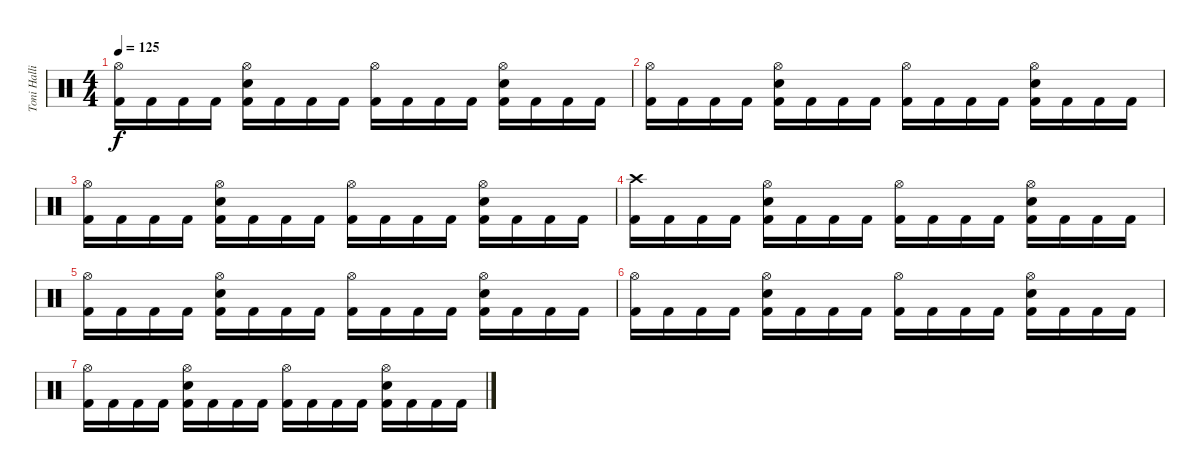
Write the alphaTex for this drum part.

\track ("Toni Hallio" "Toni Halli") {instrument percussion}
\staff {score}
\articulation defaults
\ts (4 4)
\tempo 125
\clef neutral
\ks c
("Hi-Hat (open)" "Kick (hit) 2").16{dy f} "Kick (hit) 2".16 "Kick (hit) 2".16 "Kick (hit) 2".16 ("Snare (hit) 2" "Hi-Hat (open)" "Kick (hit) 2").16 "Kick (hit) 2".16 "Kick (hit) 2".16 "Kick (hit) 2".16 ("Hi-Hat (open)" "Kick (hit) 2").16 "Kick (hit) 2".16 "Kick (hit) 2".16 "Kick (hit) 2".16 ("Snare (hit) 2" "Hi-Hat (open)" "Kick (hit) 2").16 "Kick (hit) 2".16 "Kick (hit) 2".16 "Kick (hit) 2".16 |
("Hi-Hat (open)" "Kick (hit) 2").16 "Kick (hit) 2".16 "Kick (hit) 2".16 "Kick (hit) 2".16 ("Snare (hit) 2" "Hi-Hat (open)" "Kick (hit) 2").16 "Kick (hit) 2".16 "Kick (hit) 2".16 "Kick (hit) 2".16 ("Hi-Hat (open)" "Kick (hit) 2").16 "Kick (hit) 2".16 "Kick (hit) 2".16 "Kick (hit) 2".16 ("Snare (hit) 2" "Hi-Hat (open)" "Kick (hit) 2").16 "Kick (hit) 2".16 "Kick (hit) 2".16 "Kick (hit) 2".16 |
("Hi-Hat (open)" "Kick (hit) 2").16 "Kick (hit) 2".16 "Kick (hit) 2".16 "Kick (hit) 2".16 ("Snare (hit) 2" "Hi-Hat (open)" "Kick (hit) 2").16 "Kick (hit) 2".16 "Kick (hit) 2".16 "Kick (hit) 2".16 ("Hi-Hat (open)" "Kick (hit) 2").16 "Kick (hit) 2".16 "Kick (hit) 2".16 "Kick (hit) 2".16 ("Snare (hit) 2" "Hi-Hat (open)" "Kick (hit) 2").16 "Kick (hit) 2".16 "Kick (hit) 2".16 "Kick (hit) 2".16 |
("Crash high (hit)" "Kick (hit) 2").16{volume 6} "Kick (hit) 2".16 "Kick (hit) 2".16 "Kick (hit) 2".16 ("Snare (hit) 2" "Hi-Hat (open)" "Kick (hit) 2").16 "Kick (hit) 2".16 "Kick (hit) 2".16 "Kick (hit) 2".16 ("Hi-Hat (open)" "Kick (hit) 2").16 "Kick (hit) 2".16 "Kick (hit) 2".16 "Kick (hit) 2".16 ("Snare (hit) 2" "Hi-Hat (open)" "Kick (hit) 2").16 "Kick (hit) 2".16 "Kick (hit) 2".16 "Kick (hit) 2".16 |
("Hi-Hat (open)" "Kick (hit) 2").16 "Kick (hit) 2".16 "Kick (hit) 2".16 "Kick (hit) 2".16 ("Snare (hit) 2" "Hi-Hat (open)" "Kick (hit) 2").16 "Kick (hit) 2".16 "Kick (hit) 2".16 "Kick (hit) 2".16 ("Hi-Hat (open)" "Kick (hit) 2").16 "Kick (hit) 2".16 "Kick (hit) 2".16 "Kick (hit) 2".16 ("Snare (hit) 2" "Hi-Hat (open)" "Kick (hit) 2").16 "Kick (hit) 2".16 "Kick (hit) 2".16 "Kick (hit) 2".16 |
("Hi-Hat (open)" "Kick (hit) 2").16 "Kick (hit) 2".16 "Kick (hit) 2".16 "Kick (hit) 2".16 ("Snare (hit) 2" "Hi-Hat (open)" "Kick (hit) 2").16 "Kick (hit) 2".16 "Kick (hit) 2".16 "Kick (hit) 2".16 ("Hi-Hat (open)" "Kick (hit) 2").16 "Kick (hit) 2".16 "Kick (hit) 2".16 "Kick (hit) 2".16 ("Snare (hit) 2" "Hi-Hat (open)" "Kick (hit) 2").16 "Kick (hit) 2".16 "Kick (hit) 2".16 "Kick (hit) 2".16 |
("Hi-Hat (open)" "Kick (hit) 2").16 "Kick (hit) 2".16 "Kick (hit) 2".16 "Kick (hit) 2".16 ("Snare (hit) 2" "Hi-Hat (open)" "Kick (hit) 2").16 "Kick (hit) 2".16 "Kick (hit) 2".16 "Kick (hit) 2".16 ("Hi-Hat (open)" "Kick (hit) 2").16 "Kick (hit) 2".16 "Kick (hit) 2".16 "Kick (hit) 2".16 ("Snare (hit) 2" "Hi-Hat (open)" "Kick (hit) 2").16 "Kick (hit) 2".16 "Kick (hit) 2".16 "Kick (hit) 2".16
